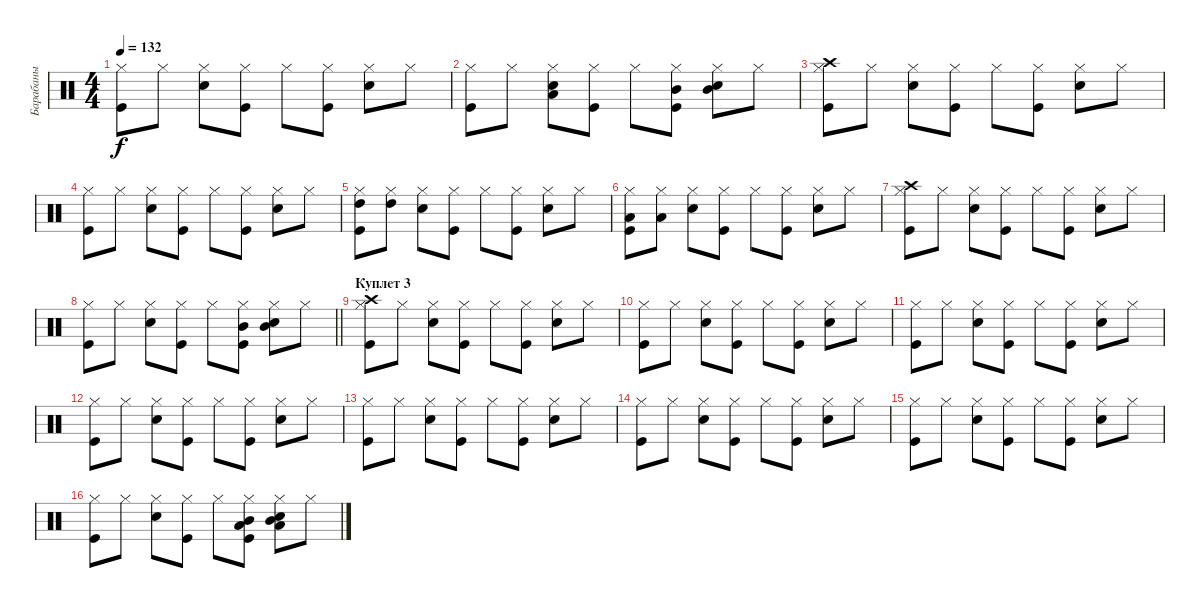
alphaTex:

\track ("Барабаны" "Барабаны") {instrument percussion}
\staff {score}
\articulation defaults
\ts (4 4)
\tempo 132
\clef neutral
\ks c
("Kick (hit)" "Hi-Hat (closed)").8{dy f} "Hi-Hat (closed)".8 ("Snare (hit) 2" "Hi-Hat (closed)").8 ("Kick (hit)" "Hi-Hat (closed)").8 "Hi-Hat (closed)".8 ("Kick (hit)" "Hi-Hat (closed)").8 ("Snare (hit) 2" "Hi-Hat (closed)").8 "Hi-Hat (closed)".8 |
("Kick (hit)" "Hi-Hat (closed)").8 "Hi-Hat (closed)".8 ("Snare (hit) 2" "Hi-Hat (closed)" "Low Tom (hit)").8 ("Kick (hit)" "Hi-Hat (closed)").8 "Hi-Hat (closed)".8 ("Kick (hit)" "Hi-Hat (closed)" "Mid Tom (hit)").8 ("Snare (hit) 2" "Hi-Hat (closed)" "Mid Tom (hit)").8 "Hi-Hat (closed)".8 |
("Kick (hit)" "Hi-Hat (closed)" "Crash high (hit)").8 "Hi-Hat (closed)".8 ("Snare (hit) 2" "Hi-Hat (closed)").8 ("Kick (hit)" "Hi-Hat (closed)").8 "Hi-Hat (closed)".8 ("Kick (hit)" "Hi-Hat (closed)").8 ("Snare (hit) 2" "Hi-Hat (closed)").8 "Hi-Hat (closed)".8 |
("Kick (hit)" "Hi-Hat (closed)").8 "Hi-Hat (closed)".8 ("Snare (hit) 2" "Hi-Hat (closed)").8 ("Kick (hit)" "Hi-Hat (closed)").8 "Hi-Hat (closed)".8 ("Kick (hit)" "Hi-Hat (closed)").8 ("Snare (hit) 2" "Hi-Hat (closed)").8 "Hi-Hat (closed)".8 |
("Kick (hit)" "Hi-Hat (closed)" "High Tom (hit)").8 ("Hi-Hat (closed)" "High Tom (hit)").8 ("Snare (hit) 2" "Hi-Hat (closed)").8 ("Kick (hit)" "Hi-Hat (closed)").8 "Hi-Hat (closed)".8 ("Kick (hit)" "Hi-Hat (closed)").8 ("Snare (hit) 2" "Hi-Hat (closed)").8 "Hi-Hat (closed)".8 |
("Kick (hit)" "Hi-Hat (closed)" "Low Tom (hit)").8 ("Hi-Hat (closed)" "Low Tom (hit)").8 ("Snare (hit) 2" "Hi-Hat (closed)").8 ("Kick (hit)" "Hi-Hat (closed)").8 "Hi-Hat (closed)".8 ("Kick (hit)" "Hi-Hat (closed)").8 ("Snare (hit) 2" "Hi-Hat (closed)").8 "Hi-Hat (closed)".8 |
("Kick (hit)" "Hi-Hat (closed)" "Crash high (hit)").8 "Hi-Hat (closed)".8 ("Snare (hit) 2" "Hi-Hat (closed)").8 ("Kick (hit)" "Hi-Hat (closed)").8 "Hi-Hat (closed)".8 ("Kick (hit)" "Hi-Hat (closed)").8 ("Snare (hit) 2" "Hi-Hat (closed)").8 "Hi-Hat (closed)".8 |
\barLineRight lightlight
("Kick (hit)" "Hi-Hat (closed)").8 "Hi-Hat (closed)".8 ("Snare (hit) 2" "Hi-Hat (closed)").8 ("Kick (hit)" "Hi-Hat (closed)").8 "Hi-Hat (closed)".8 ("Kick (hit)" "Hi-Hat (closed)" "Mid Tom (hit)").8 ("Snare (hit) 2" "Hi-Hat (closed)" "Mid Tom (hit)").8 "Hi-Hat (closed)".8 |
\section ("" "Куплет 3")
("Kick (hit)" "Hi-Hat (closed)" "Crash high (hit)").8 "Hi-Hat (closed)".8 ("Snare (hit) 2" "Hi-Hat (closed)").8 ("Kick (hit)" "Hi-Hat (closed)").8 "Hi-Hat (closed)".8 ("Kick (hit)" "Hi-Hat (closed)").8 ("Snare (hit) 2" "Hi-Hat (closed)").8 "Hi-Hat (closed)".8 |
("Kick (hit)" "Hi-Hat (closed)").8 "Hi-Hat (closed)".8 ("Snare (hit) 2" "Hi-Hat (closed)").8 ("Kick (hit)" "Hi-Hat (closed)").8 "Hi-Hat (closed)".8 ("Kick (hit)" "Hi-Hat (closed)").8 ("Snare (hit) 2" "Hi-Hat (closed)").8 "Hi-Hat (closed)".8 |
("Kick (hit)" "Hi-Hat (closed)").8 "Hi-Hat (closed)".8 ("Snare (hit) 2" "Hi-Hat (closed)").8 ("Kick (hit)" "Hi-Hat (closed)").8 "Hi-Hat (closed)".8 ("Kick (hit)" "Hi-Hat (closed)").8 ("Snare (hit) 2" "Hi-Hat (closed)").8 "Hi-Hat (closed)".8 |
("Kick (hit)" "Hi-Hat (closed)").8 "Hi-Hat (closed)".8 ("Snare (hit) 2" "Hi-Hat (closed)").8 ("Kick (hit)" "Hi-Hat (closed)").8 "Hi-Hat (closed)".8 ("Kick (hit)" "Hi-Hat (closed)").8 ("Snare (hit) 2" "Hi-Hat (closed)").8 "Hi-Hat (closed)".8 |
("Kick (hit)" "Hi-Hat (closed)").8 "Hi-Hat (closed)".8 ("Snare (hit) 2" "Hi-Hat (closed)").8 ("Kick (hit)" "Hi-Hat (closed)").8 "Hi-Hat (closed)".8 ("Kick (hit)" "Hi-Hat (closed)").8 ("Snare (hit) 2" "Hi-Hat (closed)").8 "Hi-Hat (closed)".8 |
("Kick (hit)" "Hi-Hat (closed)").8 "Hi-Hat (closed)".8 ("Snare (hit) 2" "Hi-Hat (closed)").8 ("Kick (hit)" "Hi-Hat (closed)").8 "Hi-Hat (closed)".8 ("Kick (hit)" "Hi-Hat (closed)").8 ("Snare (hit) 2" "Hi-Hat (closed)").8 "Hi-Hat (closed)".8 |
("Kick (hit)" "Hi-Hat (closed)").8 "Hi-Hat (closed)".8 ("Snare (hit) 2" "Hi-Hat (closed)").8 ("Kick (hit)" "Hi-Hat (closed)").8 "Hi-Hat (closed)".8 ("Kick (hit)" "Hi-Hat (closed)").8 ("Snare (hit) 2" "Hi-Hat (closed)").8 "Hi-Hat (closed)".8 |
("Kick (hit)" "Hi-Hat (closed)").8 "Hi-Hat (closed)".8 ("Snare (hit) 2" "Hi-Hat (closed)").8 ("Kick (hit)" "Hi-Hat (closed)").8 "Hi-Hat (closed)".8 ("Kick (hit)" "Hi-Hat (closed)" "Low Tom (hit)" "Mid Tom (hit)").8 ("Snare (hit) 2" "Hi-Hat (closed)" "Low Tom (hit)" "Mid Tom (hit)").8 "Hi-Hat (closed)".8
